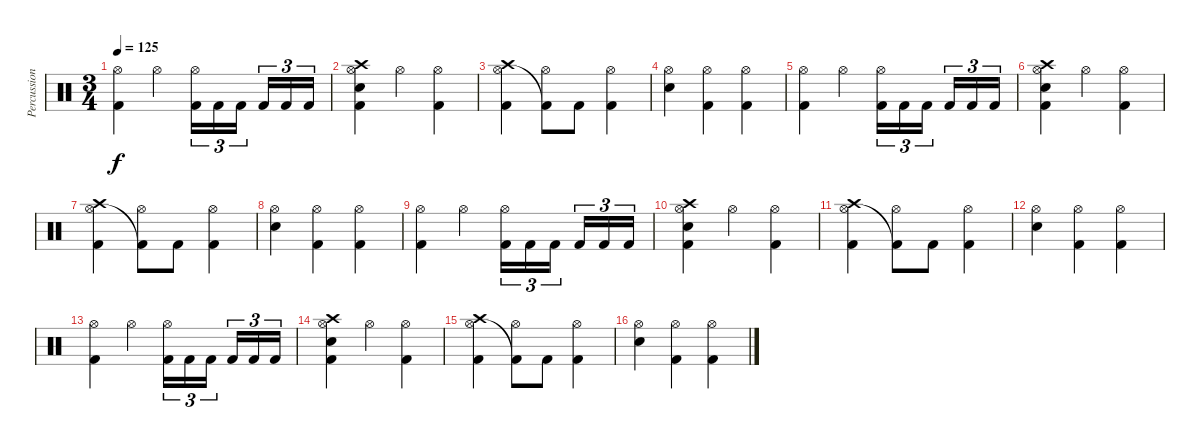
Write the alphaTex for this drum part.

\track ("Percussion" "Percussion") {instrument percussion}
\staff {score}
\articulation defaults
\ts (3 4)
\tempo 125
\clef neutral
\ks c
("Hi-Hat (open)" "Kick (hit) 2").4{dy f} "Hi-Hat (open)".4 ("Hi-Hat (open)" "Kick (hit) 2").16{tu (3 2)} "Kick (hit) 2".16{tu (3 2)} "Kick (hit) 2".16{tu (3 2)} "Kick (hit) 2".16{tu (3 2)} "Kick (hit) 2".16{tu (3 2)} "Kick (hit) 2".16{tu (3 2)} |
("Crash high (hit)" "Hi-Hat (open)" "Snare (hit) 2" "Kick (hit) 2").4 "Hi-Hat (open)".4 ("Hi-Hat (open)" "Kick (hit) 2").4 |
("Crash high (hit)" "Hi-Hat (open)" "Kick (hit) 2").4 ("Hi-Hat (open)" "Kick (hit) 2"{t}).8 "Kick (hit) 2".8 ("Hi-Hat (open)" "Kick (hit) 2").4 |
("Hi-Hat (open)" "Snare (hit) 2").4 ("Hi-Hat (open)" "Kick (hit) 2").4 ("Hi-Hat (open)" "Kick (hit) 2").4 |
("Hi-Hat (open)" "Kick (hit) 2").4 "Hi-Hat (open)".4 ("Hi-Hat (open)" "Kick (hit) 2").16{tu (3 2)} "Kick (hit) 2".16{tu (3 2)} "Kick (hit) 2".16{tu (3 2)} "Kick (hit) 2".16{tu (3 2)} "Kick (hit) 2".16{tu (3 2)} "Kick (hit) 2".16{tu (3 2)} |
("Crash high (hit)" "Hi-Hat (open)" "Snare (hit) 2" "Kick (hit) 2").4 "Hi-Hat (open)".4 ("Hi-Hat (open)" "Kick (hit) 2").4 |
("Crash high (hit)" "Hi-Hat (open)" "Kick (hit) 2").4 ("Hi-Hat (open)" "Kick (hit) 2"{t}).8 "Kick (hit) 2".8 ("Hi-Hat (open)" "Kick (hit) 2").4 |
("Hi-Hat (open)" "Snare (hit) 2").4 ("Hi-Hat (open)" "Kick (hit) 2").4 ("Hi-Hat (open)" "Kick (hit) 2").4 |
("Hi-Hat (open)" "Kick (hit) 2").4 "Hi-Hat (open)".4 ("Hi-Hat (open)" "Kick (hit) 2").16{tu (3 2)} "Kick (hit) 2".16{tu (3 2)} "Kick (hit) 2".16{tu (3 2)} "Kick (hit) 2".16{tu (3 2)} "Kick (hit) 2".16{tu (3 2)} "Kick (hit) 2".16{tu (3 2)} |
("Crash high (hit)" "Hi-Hat (open)" "Snare (hit) 2" "Kick (hit) 2").4 "Hi-Hat (open)".4 ("Hi-Hat (open)" "Kick (hit) 2").4 |
("Crash high (hit)" "Hi-Hat (open)" "Kick (hit) 2").4 ("Hi-Hat (open)" "Kick (hit) 2"{t}).8 "Kick (hit) 2".8 ("Hi-Hat (open)" "Kick (hit) 2").4 |
("Hi-Hat (open)" "Snare (hit) 2").4 ("Hi-Hat (open)" "Kick (hit) 2").4 ("Hi-Hat (open)" "Kick (hit) 2").4 |
("Hi-Hat (open)" "Kick (hit) 2").4 "Hi-Hat (open)".4 ("Hi-Hat (open)" "Kick (hit) 2").16{tu (3 2)} "Kick (hit) 2".16{tu (3 2)} "Kick (hit) 2".16{tu (3 2)} "Kick (hit) 2".16{tu (3 2)} "Kick (hit) 2".16{tu (3 2)} "Kick (hit) 2".16{tu (3 2)} |
("Crash high (hit)" "Hi-Hat (open)" "Snare (hit) 2" "Kick (hit) 2").4 "Hi-Hat (open)".4 ("Hi-Hat (open)" "Kick (hit) 2").4 |
("Crash high (hit)" "Hi-Hat (open)" "Kick (hit) 2").4 ("Hi-Hat (open)" "Kick (hit) 2"{t}).8 "Kick (hit) 2".8 ("Hi-Hat (open)" "Kick (hit) 2").4 |
("Hi-Hat (open)" "Snare (hit) 2").4 ("Hi-Hat (open)" "Kick (hit) 2").4 ("Hi-Hat (open)" "Kick (hit) 2").4
